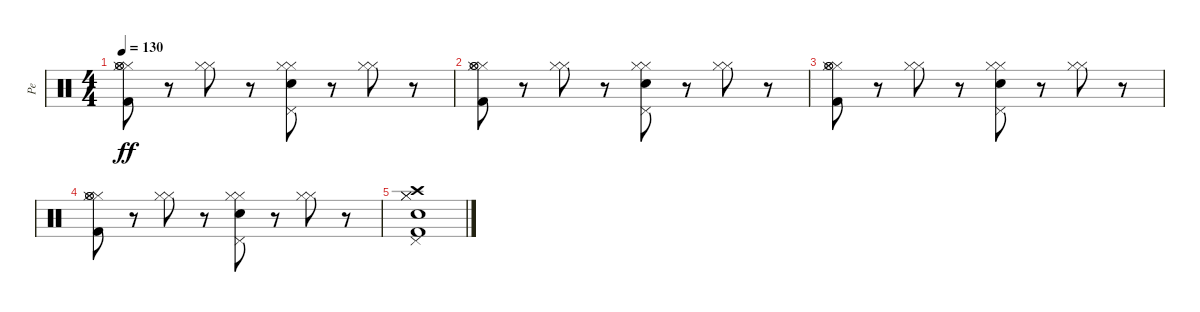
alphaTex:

\track ("Pe" "Pe") {instrument percussion}
\staff {score}
\articulation defaults
\ts (4 4)
\tempo 130
\clef neutral
\ks c
("Hi-Hat (closed)" "Hi-Hat (closed)" "Hi-Hat (open)" "Hi-Hat (open)" "Kick (hit) 2").8{dy ff} r.8 ("Hi-Hat (closed)" "Hi-Hat (closed)").8 r.8 ("Hi-Hat (closed)" "Hi-Hat (closed)" "Pedal Hi-Hat (hit)" "Electric Snare (hit)").8 r.8 ("Hi-Hat (closed)" "Hi-Hat (closed)").8 r.8 |
("Hi-Hat (closed)" "Hi-Hat (closed)" "Hi-Hat (open)" "Hi-Hat (open)" "Kick (hit) 2").8 r.8 ("Hi-Hat (closed)" "Hi-Hat (closed)").8 r.8 ("Hi-Hat (closed)" "Hi-Hat (closed)" "Pedal Hi-Hat (hit)" "Electric Snare (hit)").8 r.8 ("Hi-Hat (closed)" "Hi-Hat (closed)").8 r.8 |
("Hi-Hat (closed)" "Hi-Hat (closed)" "Hi-Hat (open)" "Hi-Hat (open)" "Kick (hit) 2").8 r.8 ("Hi-Hat (closed)" "Hi-Hat (closed)").8 r.8 ("Hi-Hat (closed)" "Hi-Hat (closed)" "Pedal Hi-Hat (hit)" "Electric Snare (hit)").8 r.8 ("Hi-Hat (closed)" "Hi-Hat (closed)").8 r.8 |
("Hi-Hat (closed)" "Hi-Hat (closed)" "Hi-Hat (open)" "Hi-Hat (open)" "Kick (hit) 2").8 r.8 ("Hi-Hat (closed)" "Hi-Hat (closed)").8 r.8 ("Hi-Hat (closed)" "Hi-Hat (closed)" "Pedal Hi-Hat (hit)" "Electric Snare (hit)").8 r.8 ("Hi-Hat (closed)" "Hi-Hat (closed)").8 r.8 |
("Hi-Hat (closed)" "Hi-Hat (closed)" "Crash high (hit)" "Pedal Hi-Hat (hit)" "Electric Snare (hit)" "Kick (hit) 2").1
